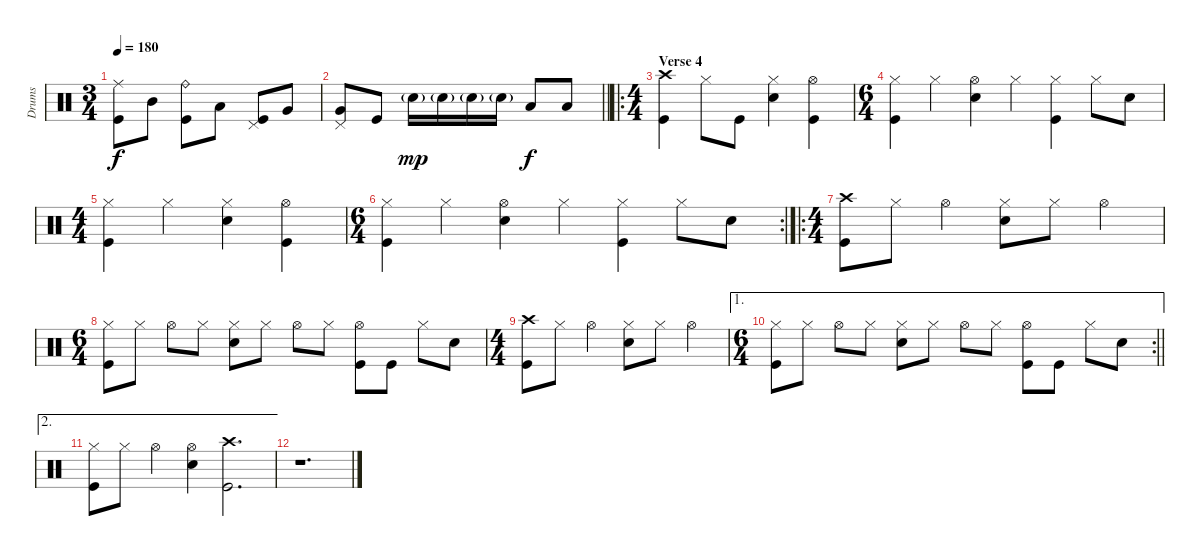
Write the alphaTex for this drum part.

\track ("Drums" "Drums") {instrument percussion}
\staff {score}
\articulation defaults
\ts (3 4)
\tempo 180
\clef neutral
\ks c
("Ride (middle)" "Kick (hit)").8{dy f} "Mid Tom (hit)".8 ("Ride (bell)" "Kick (hit)").8 "Low Tom (hit)".8 ("Pedal Hi-Hat (hit)" "Kick (hit)").8 "Very Low Tom (hit)".8 |
\barLineRight lightlight
("Pedal Hi-Hat (hit)" "Very Low Tom (hit)").8 "Kick (hit)".8 "Snare (hit) 2"{g}.16{dy mp} "Snare (hit) 2"{g}.16 "Snare (hit) 2"{g}.16 "Snare (hit) 2"{g}.16 "Low Tom (hit)".8{dy f} "Low Tom (hit)".8 |
\ro
\ts (4 4)
\section ("" "Verse 4")
("Crash high (hit)" "Kick (hit)").4 "Hi-Hat (closed)".8 "Kick (hit)".8 ("Hi-Hat (closed)" "Snare (hit) 2").4 ("Hi-Hat (open)" "Kick (hit)").4 |
\ts (6 4)
("Hi-Hat (closed)" "Kick (hit)").4 "Hi-Hat (closed)".4 ("Hi-Hat (open)" "Snare (hit) 2").4 "Hi-Hat (closed)".4 ("Hi-Hat (closed)" "Kick (hit)").4 "Hi-Hat (closed)".8 "Snare (hit) 2".8 |
\ts (4 4)
("Hi-Hat (closed)" "Kick (hit)").4 "Hi-Hat (closed)".4 ("Hi-Hat (closed)" "Snare (hit) 2").4 ("Hi-Hat (open)" "Kick (hit)").4 |
\rc 2
\ts (6 4)
("Hi-Hat (closed)" "Kick (hit)").4 "Hi-Hat (closed)".4 ("Hi-Hat (open)" "Snare (hit) 2").4 "Hi-Hat (closed)".4 ("Hi-Hat (closed)" "Kick (hit)").4 "Hi-Hat (closed)".8 "Snare (hit) 2".8 |
\ro
\ts (4 4)
("Crash high (hit)" "Kick (hit)").8 "Hi-Hat (closed)".8 "Hi-Hat (open)".4 ("Hi-Hat (closed)" "Snare (hit) 2").8 "Hi-Hat (closed)".8 "Hi-Hat (open)".4 |
\ts (6 4)
("Hi-Hat (closed)" "Kick (hit)").8 "Hi-Hat (closed)".8 "Hi-Hat (open)".8 "Hi-Hat (closed)".8 ("Hi-Hat (closed)" "Snare (hit) 2").8 "Hi-Hat (closed)".8 "Hi-Hat (open)".8 "Hi-Hat (closed)".8 ("Hi-Hat (open)" "Kick (hit)").8 "Kick (hit)".8 "Hi-Hat (closed)".8 "Snare (hit) 2".8 |
\ts (4 4)
("Crash high (hit)" "Kick (hit)").8 "Hi-Hat (closed)".8 "Hi-Hat (open)".4 ("Hi-Hat (closed)" "Snare (hit) 2").8 "Hi-Hat (closed)".8 "Hi-Hat (open)".4 |
\ae 1
\rc 2
\ts (6 4)
\barLineRight lightlight
("Hi-Hat (closed)" "Kick (hit)").8 "Hi-Hat (closed)".8 "Hi-Hat (open)".8 "Hi-Hat (closed)".8 ("Hi-Hat (closed)" "Snare (hit) 2").8 "Hi-Hat (closed)".8 "Hi-Hat (open)".8 "Hi-Hat (closed)".8 ("Hi-Hat (open)" "Kick (hit)").8 "Kick (hit)".8 "Hi-Hat (closed)".8 "Snare (hit) 2".8 |
\ae 2
("Hi-Hat (closed)" "Kick (hit)").8 "Hi-Hat (closed)".8 "Hi-Hat (open)".4 ("Hi-Hat (open)" "Snare (hit) 2").4 ("Crash high (hit)" "Kick (hit)").2{d} |
r.1{d}
